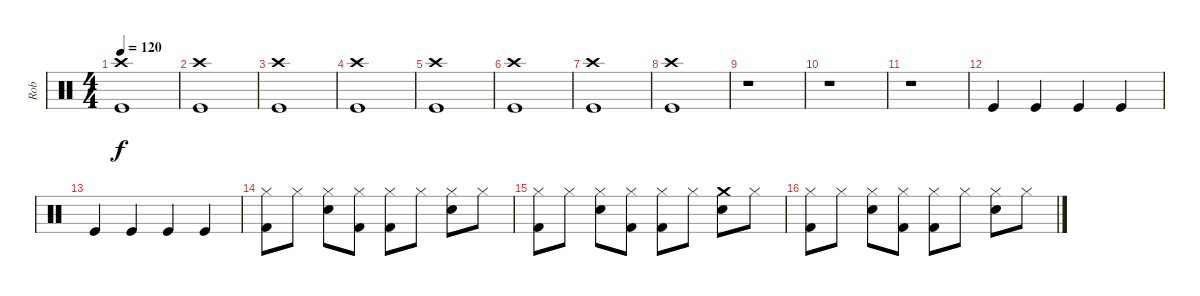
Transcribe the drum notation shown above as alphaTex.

\track ("Rob" "Rob") {instrument percussion}
\staff {score}
\articulation defaults
\ts (4 4)
\tempo 120
\clef neutral
\ks c
("Crash high (hit)" "Kick (hit)").1{dy f} |
("Crash high (hit)" "Kick (hit)").1 |
("Crash high (hit)" "Kick (hit)").1 |
("Crash high (hit)" "Kick (hit)").1 |
("Crash high (hit)" "Kick (hit)").1 |
("Crash high (hit)" "Kick (hit)").1 |
("Crash high (hit)" "Kick (hit)").1 |
("Crash high (hit)" "Kick (hit)").1 |
r.1 |
r.1 |
r.1 |
"Kick (hit)".4 "Kick (hit)".4 "Kick (hit)".4 "Kick (hit)".4 |
"Kick (hit)".4 "Kick (hit)".4 "Kick (hit)".4 "Kick (hit)".4 |
("Hi-Hat (closed)" "Kick (hit) 2").8 "Hi-Hat (closed)".8 ("Hi-Hat (closed)" "Electric Snare (hit)").8 ("Hi-Hat (closed)" "Kick (hit) 2").8 ("Hi-Hat (closed)" "Kick (hit) 2").8 "Hi-Hat (closed)".8 ("Hi-Hat (closed)" "Electric Snare (hit)").8 "Hi-Hat (closed)".8 |
("Hi-Hat (closed)" "Kick (hit) 2").8 "Hi-Hat (closed)".8 ("Hi-Hat (closed)" "Electric Snare (hit)").8 ("Hi-Hat (closed)" "Kick (hit) 2").8 ("Hi-Hat (closed)" "Kick (hit) 2").8 "Hi-Hat (closed)".8 ("Crash medium (hit)" "Electric Snare (hit)").8 "Hi-Hat (closed)".8 |
("Hi-Hat (closed)" "Kick (hit) 2").8 "Hi-Hat (closed)".8 ("Hi-Hat (closed)" "Electric Snare (hit)").8 ("Hi-Hat (closed)" "Kick (hit) 2").8 ("Hi-Hat (closed)" "Kick (hit) 2").8 "Hi-Hat (closed)".8 ("Hi-Hat (closed)" "Electric Snare (hit)").8 "Hi-Hat (closed)".8
